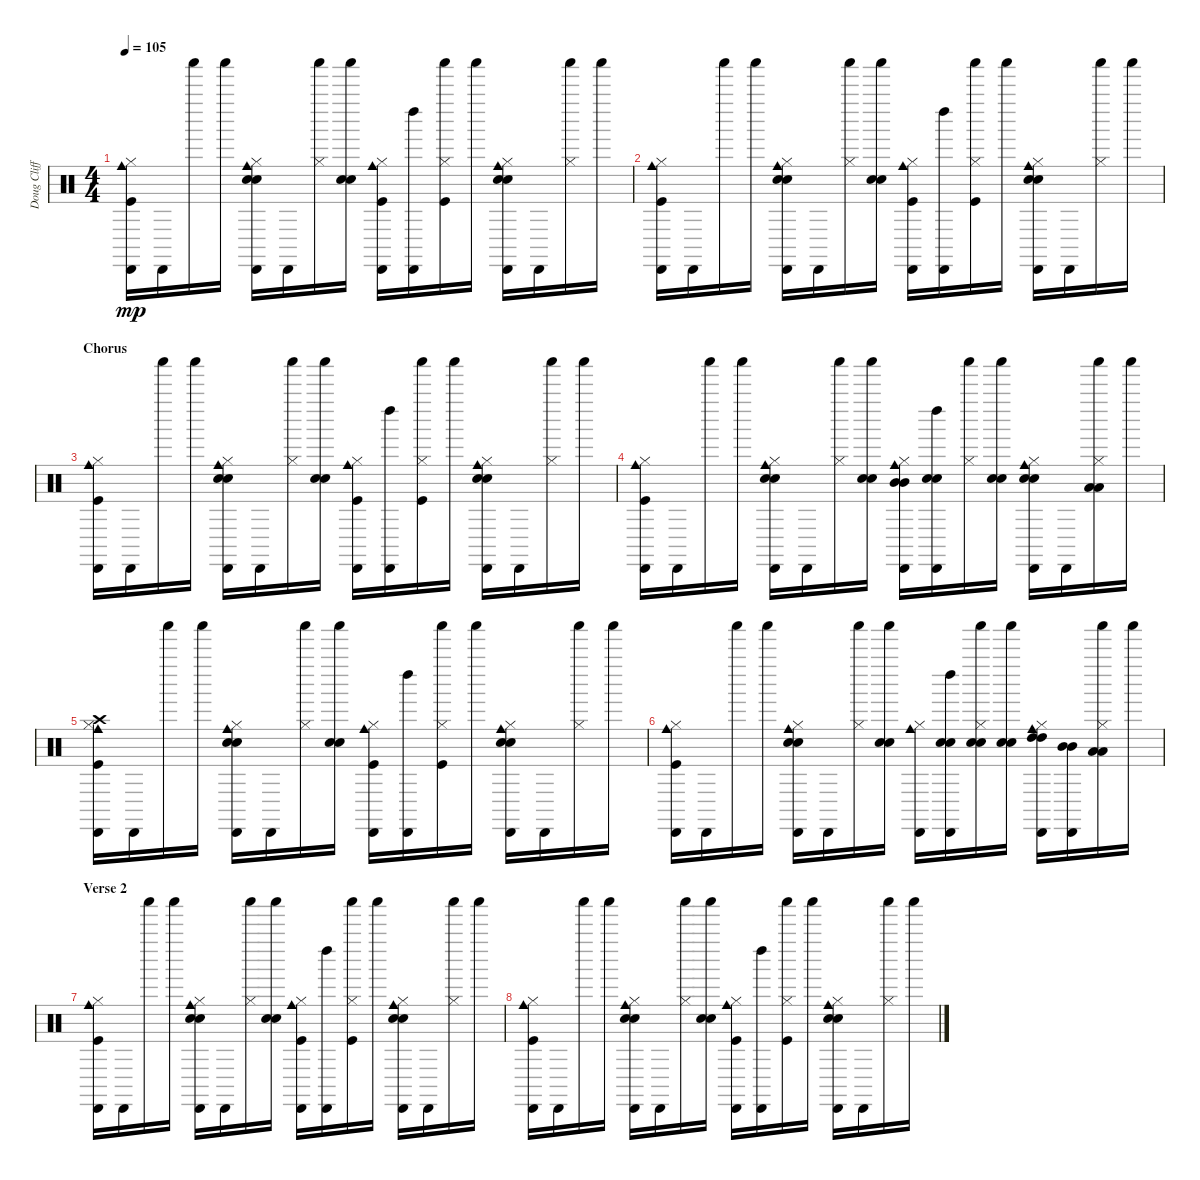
\track ("Doug Clifford" "Doug Cliff") {instrument percussion}
\staff {score}
\articulation defaults
\ts (4 4)
\tempo 105
\clef neutral
\ks c
("Cowbell medium (hit)" "Cabasa (hit)" "Kick (hit)" "Hi-Hat (closed)").16{dy mp} "Cabasa (hit)".16 "Shaker (hit)".16 "Shaker (hit)".16 ("Electric Snare (hit)" "Snare (hit) 2" "Cowbell medium (hit)" "Cabasa (hit)" "Hi-Hat (closed)").16 "Cabasa (hit)".16 ("Shaker (hit)" "Hi-Hat (closed)").16 ("Electric Snare (hit)" "Snare (hit) 2" "Shaker (hit)").16 ("Cabasa (hit)" "Kick (hit)" "Cowbell medium (hit)" "Hi-Hat (closed)").16 ("Left Maraca (hit)" "Cabasa (hit)").16 ("Shaker (hit)" "Kick (hit)" "Hi-Hat (closed)").16 "Shaker (hit)".16 ("Electric Snare (hit)" "Cowbell medium (hit)" "Snare (hit) 2" "Cabasa (hit)" "Hi-Hat (closed)").16 "Cabasa (hit)".16 ("Hi-Hat (closed)" "Shaker (hit)").16 "Shaker (hit)".16 |
("Cowbell medium (hit)" "Cabasa (hit)" "Kick (hit)" "Hi-Hat (closed)").16 "Cabasa (hit)".16 "Shaker (hit)".16 "Shaker (hit)".16 ("Electric Snare (hit)" "Snare (hit) 2" "Cowbell medium (hit)" "Cabasa (hit)" "Hi-Hat (closed)").16 "Cabasa (hit)".16 ("Shaker (hit)" "Hi-Hat (closed)").16 ("Electric Snare (hit)" "Snare (hit) 2" "Shaker (hit)").16 ("Cabasa (hit)" "Kick (hit)" "Cowbell medium (hit)" "Hi-Hat (closed)").16 ("Left Maraca (hit)" "Cabasa (hit)").16 ("Shaker (hit)" "Kick (hit)" "Hi-Hat (closed)").16 "Shaker (hit)".16 ("Electric Snare (hit)" "Cowbell medium (hit)" "Snare (hit) 2" "Cabasa (hit)" "Hi-Hat (closed)").16 "Cabasa (hit)".16 ("Hi-Hat (closed)" "Shaker (hit)").16 "Shaker (hit)".16 |
\section ("" "Chorus")
("Cowbell medium (hit)" "Cabasa (hit)" "Kick (hit)" "Hi-Hat (closed)").16 "Cabasa (hit)".16 "Shaker (hit)".16 "Shaker (hit)".16 ("Electric Snare (hit)" "Snare (hit) 2" "Cowbell medium (hit)" "Cabasa (hit)" "Hi-Hat (closed)").16 "Cabasa (hit)".16 ("Shaker (hit)" "Hi-Hat (closed)").16 ("Electric Snare (hit)" "Snare (hit) 2" "Shaker (hit)").16 ("Cabasa (hit)" "Kick (hit)" "Cowbell medium (hit)" "Hi-Hat (closed)").16 ("Left Maraca (hit)" "Cabasa (hit)").16 ("Shaker (hit)" "Kick (hit)" "Hi-Hat (closed)").16 "Shaker (hit)".16 ("Electric Snare (hit)" "Cowbell medium (hit)" "Snare (hit) 2" "Cabasa (hit)" "Hi-Hat (closed)").16 "Cabasa (hit)".16 ("Hi-Hat (closed)" "Shaker (hit)").16 "Shaker (hit)".16 |
("Cowbell medium (hit)" "Cabasa (hit)" "Kick (hit)" "Hi-Hat (closed)").16 "Cabasa (hit)".16 "Shaker (hit)".16 "Shaker (hit)".16 ("Snare (hit) 2" "Cabasa (hit)" "Cowbell medium (hit)" "Electric Snare (hit)" "Hi-Hat (closed)").16 "Cabasa (hit)".16 ("Shaker (hit)" "Hi-Hat (closed)").16 ("Snare (hit) 2" "Electric Snare (hit)" "Shaker (hit)").16 ("Mid Tom (hit)" "Hi-Hat (closed)" "Mid Tom (hit)" "Cowbell medium (hit)" "Cabasa (hit)").16 ("Snare (hit) 2" "Left Maraca (hit)" "Cabasa (hit)" "Electric Snare (hit)").16 ("Shaker (hit)" "Hi-Hat (closed)").16 ("Snare (hit) 2" "Electric Snare (hit)" "Shaker (hit)").16 ("Snare (hit) 2" "Electric Snare (hit)" "Cowbell medium (hit)" "Cabasa (hit)" "Hi-Hat (closed)").16 "Cabasa (hit)".16 ("Low Tom (hit)" "Hi-Hat (closed)" "Low Tom (hit)" "Shaker (hit)").16 "Shaker (hit)".16 |
("Crash high (hit)" "Kick (hit)" "Cowbell medium (hit)" "Cabasa (hit)" "Hi-Hat (closed)").16 "Cabasa (hit)".16 "Shaker (hit)".16 "Shaker (hit)".16 ("Snare (hit) 2" "Cabasa (hit)" "Cowbell medium (hit)" "Electric Snare (hit)" "Hi-Hat (closed)").16 "Cabasa (hit)".16 ("Hi-Hat (closed)" "Shaker (hit)").16 ("Snare (hit) 2" "Shaker (hit)" "Electric Snare (hit)").16 ("Cabasa (hit)" "Hi-Hat (closed)" "Kick (hit)" "Cowbell medium (hit)").16 ("Left Maraca (hit)" "Cabasa (hit)").16 ("Kick (hit)" "Shaker (hit)" "Hi-Hat (closed)").16 "Shaker (hit)".16 ("Snare (hit) 2" "Cabasa (hit)" "Electric Snare (hit)" "Cowbell medium (hit)" "Hi-Hat (closed)").16 "Cabasa (hit)".16 ("Shaker (hit)" "Hi-Hat (closed)").16 "Shaker (hit)".16 |
("Kick (hit)" "Cabasa (hit)" "Hi-Hat (closed)" "Cowbell medium (hit)").16 "Cabasa (hit)".16 "Shaker (hit)".16 "Shaker (hit)".16 ("Snare (hit) 2" "Cabasa (hit)" "Cowbell medium (hit)" "Electric Snare (hit)" "Hi-Hat (closed)").16 "Cabasa (hit)".16 ("Shaker (hit)" "Hi-Hat (closed)").16 ("Snare (hit) 2" "Electric Snare (hit)" "Shaker (hit)").16 ("Hi-Hat (closed)" "Cowbell medium (hit)" "Cabasa (hit)").16 ("Snare (hit) 2" "Left Maraca (hit)" "Electric Snare (hit)" "Cabasa (hit)").16 ("Snare (hit) 2" "Shaker (hit)" "Electric Snare (hit)" "Hi-Hat (closed)").16 ("Snare (hit) 2" "Electric Snare (hit)" "Shaker (hit)").16 ("High Tom (hit)" "High Tom (hit)" "Cabasa (hit)" "Cowbell medium (hit)" "Hi-Hat (closed)").16 ("Mid Tom (hit)" "Mid Tom (hit)" "Cabasa (hit)").16 ("Low Tom (hit)" "Low Tom (hit)" "Hi-Hat (closed)" "Shaker (hit)").16 "Shaker (hit)".16 |
\section ("" "Verse 2")
("Cowbell medium (hit)" "Cabasa (hit)" "Kick (hit)" "Hi-Hat (closed)").16 "Cabasa (hit)".16 "Shaker (hit)".16 "Shaker (hit)".16 ("Electric Snare (hit)" "Snare (hit) 2" "Cowbell medium (hit)" "Cabasa (hit)" "Hi-Hat (closed)").16 "Cabasa (hit)".16 ("Shaker (hit)" "Hi-Hat (closed)").16 ("Electric Snare (hit)" "Snare (hit) 2" "Shaker (hit)").16 ("Cabasa (hit)" "Kick (hit)" "Cowbell medium (hit)" "Hi-Hat (closed)").16 ("Left Maraca (hit)" "Cabasa (hit)").16 ("Shaker (hit)" "Kick (hit)" "Hi-Hat (closed)").16 "Shaker (hit)".16 ("Electric Snare (hit)" "Cowbell medium (hit)" "Snare (hit) 2" "Cabasa (hit)" "Hi-Hat (closed)").16 "Cabasa (hit)".16 ("Hi-Hat (closed)" "Shaker (hit)").16 "Shaker (hit)".16 |
("Cowbell medium (hit)" "Cabasa (hit)" "Kick (hit)" "Hi-Hat (closed)").16 "Cabasa (hit)".16 "Shaker (hit)".16 "Shaker (hit)".16 ("Electric Snare (hit)" "Snare (hit) 2" "Cowbell medium (hit)" "Cabasa (hit)" "Hi-Hat (closed)").16 "Cabasa (hit)".16 ("Shaker (hit)" "Hi-Hat (closed)").16 ("Electric Snare (hit)" "Snare (hit) 2" "Shaker (hit)").16 ("Cabasa (hit)" "Kick (hit)" "Cowbell medium (hit)" "Hi-Hat (closed)").16 ("Left Maraca (hit)" "Cabasa (hit)").16 ("Shaker (hit)" "Kick (hit)" "Hi-Hat (closed)").16 "Shaker (hit)".16 ("Electric Snare (hit)" "Cowbell medium (hit)" "Snare (hit) 2" "Cabasa (hit)" "Hi-Hat (closed)").16 "Cabasa (hit)".16 ("Hi-Hat (closed)" "Shaker (hit)").16 "Shaker (hit)".16
